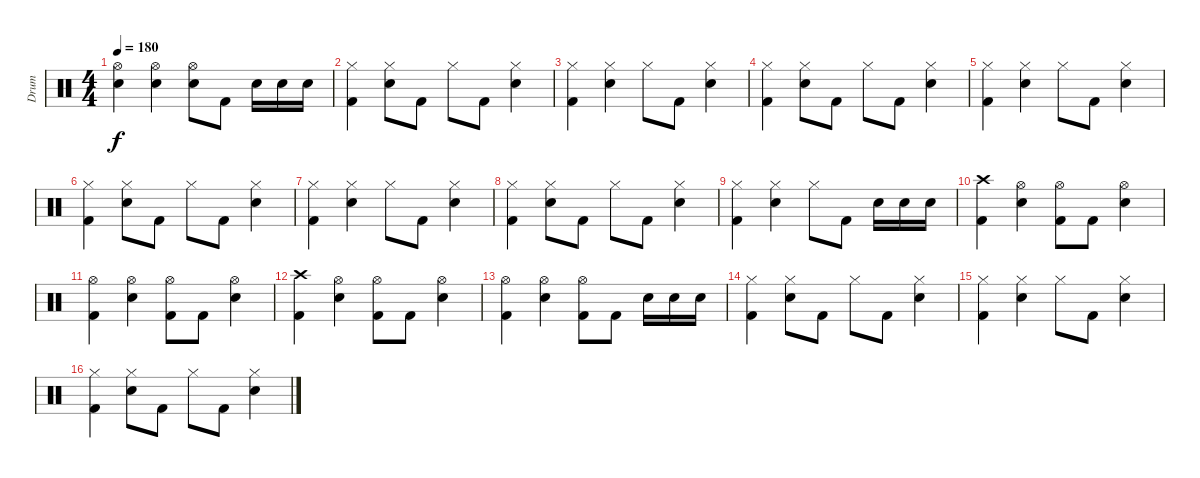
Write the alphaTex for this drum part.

\track ("Drum" "Drum") {instrument percussion}
\staff {score}
\articulation defaults
\ts (4 4)
\tempo 180
\clef neutral
\ks c
("Hi-Hat (open)" "Electric Snare (hit)").4{dy f} ("Hi-Hat (open)" "Electric Snare (hit)").4 ("Hi-Hat (open)" "Electric Snare (hit)").8 "Kick (hit) 2".8 "Electric Snare (hit)".16 "Electric Snare (hit)".16 "Electric Snare (hit)".16 |
("Hi-Hat (closed)" "Kick (hit) 2").4 ("Hi-Hat (closed)" "Electric Snare (hit)").8 "Kick (hit) 2".8 "Hi-Hat (closed)".8 "Kick (hit) 2".8 ("Hi-Hat (closed)" "Electric Snare (hit)").4 |
("Hi-Hat (closed)" "Kick (hit) 2").4 ("Hi-Hat (closed)" "Electric Snare (hit)").4 "Hi-Hat (closed)".8 "Kick (hit) 2".8 ("Hi-Hat (closed)" "Electric Snare (hit)").4 |
("Hi-Hat (closed)" "Kick (hit) 2").4 ("Hi-Hat (closed)" "Electric Snare (hit)").8 "Kick (hit) 2".8 "Hi-Hat (closed)".8 "Kick (hit) 2".8 ("Hi-Hat (closed)" "Electric Snare (hit)").4 |
("Hi-Hat (closed)" "Kick (hit) 2").4 ("Hi-Hat (closed)" "Electric Snare (hit)").4 "Hi-Hat (closed)".8 "Kick (hit) 2".8 ("Hi-Hat (closed)" "Electric Snare (hit)").4 |
("Hi-Hat (closed)" "Kick (hit) 2").4 ("Hi-Hat (closed)" "Electric Snare (hit)").8 "Kick (hit) 2".8 "Hi-Hat (closed)".8 "Kick (hit) 2".8 ("Hi-Hat (closed)" "Electric Snare (hit)").4 |
("Hi-Hat (closed)" "Kick (hit) 2").4 ("Hi-Hat (closed)" "Electric Snare (hit)").4 "Hi-Hat (closed)".8 "Kick (hit) 2".8 ("Hi-Hat (closed)" "Electric Snare (hit)").4 |
("Hi-Hat (closed)" "Kick (hit) 2").4 ("Hi-Hat (closed)" "Electric Snare (hit)").8 "Kick (hit) 2".8 "Hi-Hat (closed)".8 "Kick (hit) 2".8 ("Hi-Hat (closed)" "Electric Snare (hit)").4 |
("Hi-Hat (closed)" "Kick (hit) 2").4 ("Hi-Hat (closed)" "Electric Snare (hit)").4 "Hi-Hat (closed)".8 "Kick (hit) 2".8 "Electric Snare (hit)".16 "Electric Snare (hit)".16 "Electric Snare (hit)".16 |
("Crash high (hit)" "Kick (hit) 2").4 ("Hi-Hat (open)" "Electric Snare (hit)").4 ("Hi-Hat (open)" "Kick (hit) 2").8 "Kick (hit) 2".8 ("Hi-Hat (open)" "Electric Snare (hit)").4 |
("Hi-Hat (open)" "Kick (hit) 2").4 ("Hi-Hat (open)" "Electric Snare (hit)").4 ("Hi-Hat (open)" "Kick (hit) 2").8 "Kick (hit) 2".8 ("Hi-Hat (open)" "Electric Snare (hit)").4 |
("Crash high (hit)" "Kick (hit) 2").4 ("Hi-Hat (open)" "Electric Snare (hit)").4 ("Hi-Hat (open)" "Kick (hit) 2").8 "Kick (hit) 2".8 ("Hi-Hat (open)" "Electric Snare (hit)").4 |
("Hi-Hat (open)" "Kick (hit) 2").4 ("Hi-Hat (open)" "Electric Snare (hit)").4 ("Hi-Hat (open)" "Kick (hit) 2").8 "Kick (hit) 2".8 "Electric Snare (hit)".16 "Electric Snare (hit)".16 "Electric Snare (hit)".16 |
("Hi-Hat (closed)" "Kick (hit) 2").4 ("Hi-Hat (closed)" "Electric Snare (hit)").8 "Kick (hit) 2".8 "Hi-Hat (closed)".8 "Kick (hit) 2".8 ("Hi-Hat (closed)" "Electric Snare (hit)").4 |
("Hi-Hat (closed)" "Kick (hit) 2").4 ("Hi-Hat (closed)" "Electric Snare (hit)").4 "Hi-Hat (closed)".8 "Kick (hit) 2".8 ("Hi-Hat (closed)" "Electric Snare (hit)").4 |
("Hi-Hat (closed)" "Kick (hit) 2").4 ("Hi-Hat (closed)" "Electric Snare (hit)").8 "Kick (hit) 2".8 "Hi-Hat (closed)".8 "Kick (hit) 2".8 ("Hi-Hat (closed)" "Electric Snare (hit)").4
